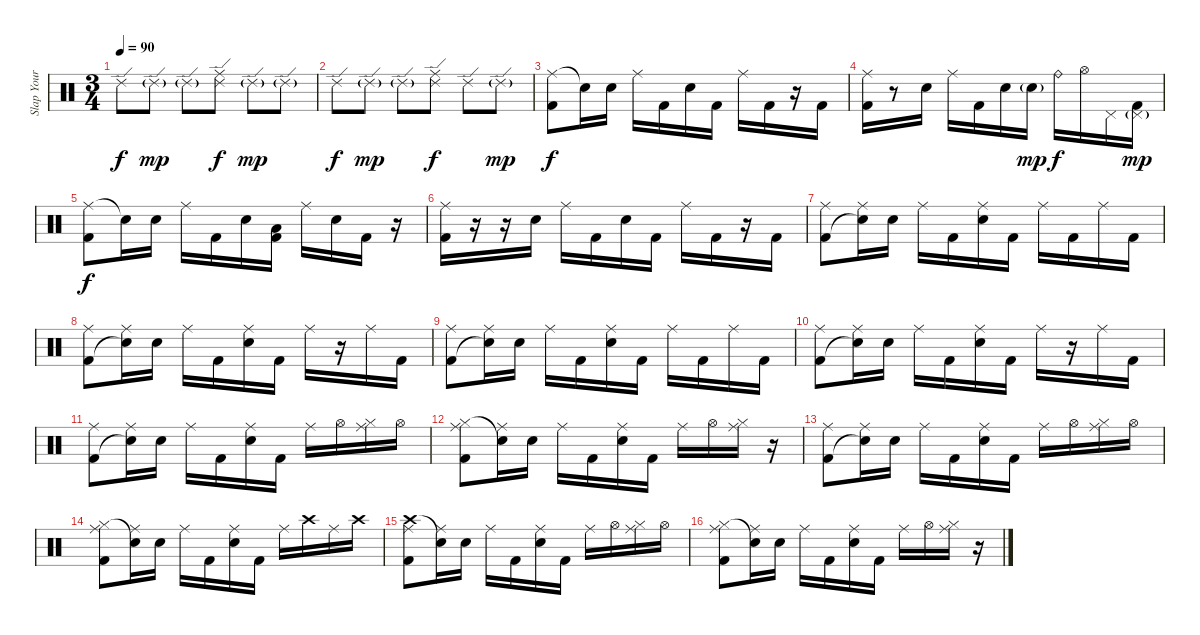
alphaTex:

\track ("Slap Your Sticks" "Slap Your ") {instrument percussion}
\staff {score}
\articulation defaults
\ts (3 4)
\tempo 90
\clef neutral
\ks c "Ride (edge) 2".8{dy f} "Ride (edge) 2"{g}.8{dy mp} "Ride (edge) 2"{g}.8
("Ride (middle)" "Ride (edge) 2").8{dy f} "Ride (edge) 2"{g}.8{dy mp} "Ride (edge) 2"{g}.8 |
"Ride (edge) 2".8{dy f} "Ride (edge) 2"{g}.8{dy mp} "Ride (edge) 2"{g}.8 ("Ride (middle)" "Ride (edge) 2").8{dy f} "Ride (edge) 2".8 "Ride (edge) 2"{g}.8{dy mp} |
("Ride (middle)" "Kick (hit) 2").8{dy f} "Snare (hit)"{t}.16 "Electric Snare (hit)".16 "Ride (middle)".16 "Kick (hit) 2".16 "Electric Snare (hit)".16 "Kick (hit) 2".16 "Ride (middle)".16 "Kick (hit) 2".16 r.16 "Kick (hit) 2".16 |
("Ride (middle)" "Kick (hit) 2").16 r.8 "Electric Snare (hit)".16 "Ride (middle)".16 "Kick (hit) 2".16 "Electric Snare (hit)".16 "Electric Snare (hit)"{g}.16{dy mp} "Ride (bell)".16{dy f} "Hi-Hat (open)".16 "Pedal Hi-Hat (hit)".16 ("Pedal Hi-Hat (hit)"{g} "Kick (hit) 2").16{dy mp} |
("Ride (middle)" "Kick (hit) 2").8{dy f} "Snare (hit)"{t}.16 "Electric Snare (hit)".16 "Ride (middle)".16 "Kick (hit) 2".16 "Electric Snare (hit)".16 ("Low Tom (hit)" "Kick (hit) 2").16 "Ride (middle)".16 "Electric Snare (hit)".16 "Kick (hit) 2".16 r.16 |
("Ride (middle)" "Kick (hit) 2").16 r.16 r.16 "Electric Snare (hit)".16 "Ride (middle)".16 "Kick (hit) 2".16 "Electric Snare (hit)".16 "Kick (hit) 2".16 "Ride (middle)".16 "Kick (hit) 2".16 r.16 "Kick (hit) 2".16 |
("Ride (middle)" "Kick (hit) 2").8 ("Ride (middle)" "Snare (hit)"{t}).16 "Electric Snare (hit)".16 "Ride (middle)".16 "Kick (hit) 2".16 ("Ride (middle)" "Electric Snare (hit)").16 "Kick (hit) 2".16 "Ride (middle)".16 "Kick (hit) 2".16 "Ride (middle)".16 "Kick (hit) 2".16 |
("Ride (middle)" "Kick (hit) 2").8 ("Ride (middle)" "Snare (hit)"{t}).16 "Electric Snare (hit)".16 "Ride (middle)".16 "Kick (hit) 2".16 ("Ride (middle)" "Electric Snare (hit)").16 "Kick (hit) 2".16 "Ride (middle)".16 r.16 "Ride (middle)".16 "Kick (hit) 2".16 |
("Ride (middle)" "Kick (hit) 2").8 ("Ride (middle)" "Snare (hit)"{t}).16 "Electric Snare (hit)".16 "Ride (middle)".16 "Kick (hit) 2".16 ("Ride (middle)" "Electric Snare (hit)").16 "Kick (hit) 2".16 "Ride (middle)".16 "Kick (hit) 2".16 "Ride (middle)".16 "Kick (hit) 2".16 |
("Ride (middle)" "Kick (hit) 2").8 ("Ride (middle)" "Snare (hit)"{t}).16 "Electric Snare (hit)".16 "Ride (middle)".16 "Kick (hit) 2".16 ("Ride (middle)" "Electric Snare (hit)").16 "Kick (hit) 2".16 "Ride (middle)".16 r.16 "Ride (middle)".16 "Kick (hit) 2".16 |
("Ride (middle)" "Kick (hit) 2").8 ("Ride (middle)" "Snare (hit)"{t}).16 "Electric Snare (hit)".16 "Ride (middle)".16 "Kick (hit) 2".16 ("Ride (middle)" "Electric Snare (hit)").16 "Kick (hit) 2".16 "Ride (middle)".16 "Hi-Hat (open)".16 ("Ride (middle)" "Hi-Hat (closed)").16 "Hi-Hat (open)".16 |
("Ride (middle)" "Hi-Hat (closed)" "Kick (hit) 2").8 ("Ride (middle)" "Snare (hit)"{t}).16 "Electric Snare (hit)".16 "Ride (middle)".16 "Kick (hit) 2".16 ("Ride (middle)" "Electric Snare (hit)").16 "Kick (hit) 2".16 "Ride (middle)".16 "Hi-Hat (open)".16 ("Ride (middle)" "Hi-Hat (closed)").16 r.16 |
("Ride (middle)" "Kick (hit) 2").8 ("Ride (middle)" "Snare (hit)"{t}).16 "Electric Snare (hit)".16 "Ride (middle)".16 "Kick (hit) 2".16 ("Ride (middle)" "Electric Snare (hit)").16 "Kick (hit) 2".16 "Ride (middle)".16 "Hi-Hat (open)".16 ("Ride (middle)" "Hi-Hat (closed)").16 "Hi-Hat (open)".16 |
("Ride (middle)" "Hi-Hat (closed)" "Kick (hit) 2").8 ("Ride (middle)" "Snare (hit)"{t}).16 "Electric Snare (hit)".16 "Ride (middle)".16 "Kick (hit) 2".16 ("Ride (middle)" "Electric Snare (hit)").16 "Kick (hit) 2".16 "Ride (middle)".16 "Crash high (hit)".16 "Ride (middle)".16 "Crash high (hit)".16 |
("Ride (middle)" "Crash high (hit)" "Kick (hit) 2").8 ("Ride (middle)" "Snare (hit)"{t}).16 "Electric Snare (hit)".16 "Ride (middle)".16 "Kick (hit) 2".16 ("Ride (middle)" "Electric Snare (hit)").16 "Kick (hit) 2".16 "Ride (middle)".16 "Hi-Hat (open)".16 ("Ride (middle)" "Hi-Hat (closed)").16 "Hi-Hat (open)".16 |
("Ride (middle)" "Hi-Hat (closed)" "Kick (hit) 2").8 ("Ride (middle)" "Snare (hit)"{t}).16 "Electric Snare (hit)".16 "Ride (middle)".16 "Kick (hit) 2".16 ("Ride (middle)" "Electric Snare (hit)").16 "Kick (hit) 2".16 "Ride (middle)".16 "Hi-Hat (open)".16 ("Ride (middle)" "Hi-Hat (closed)").16 r.16
